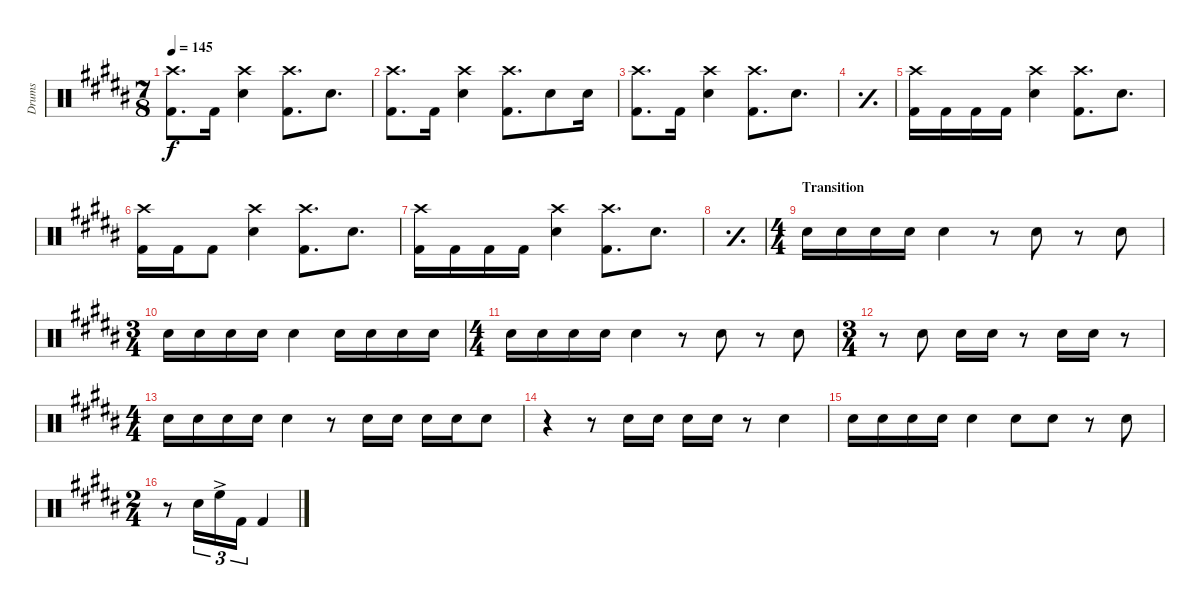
\defaultSystemsLayout 4
\bracketExtendMode groupsimilarinstruments
\otherSystemsTrackNameOrientation horizontal
\track ("Drumkit" "Drums") {multiBarRest instrument percussion}
\staff {score}
\articulation defaults
\ts (7 8)
\tempo 145
\clef neutral
\ks b
("Kick (hit) 2"{acc forcenatural} "Crash high (hit)"{acc forcenatural}).8{d dy f} "Kick (hit) 2"{acc forcenatural}.16 ("Snare (hit) 2"{acc forcenatural} "Crash high (hit)"{acc forcenatural}).4 ("Kick (hit) 2"{acc forcenatural} "Crash high (hit)"{acc forcenatural}).8{d} "Snare (hit) 2"{acc forcenatural}.8{d} |
("Kick (hit) 2"{acc forcenatural} "Crash high (hit)"{acc forcenatural}).8{d} "Kick (hit) 2"{acc forcenatural}.16 ("Snare (hit) 2"{acc forcenatural} "Crash high (hit)"{acc forcenatural}).4 ("Kick (hit) 2"{acc forcenatural} "Crash high (hit)"{acc forcenatural}).8{d} "Snare (hit) 2"{acc forcenatural}.8 "Snare (hit) 2"{acc forcenatural}.16 |
("Kick (hit) 2"{acc forcenatural} "Crash high (hit)"{acc forcenatural}).8{d} "Kick (hit) 2"{acc forcenatural}.16 ("Snare (hit) 2"{acc forcenatural} "Crash high (hit)"{acc forcenatural}).4 ("Kick (hit) 2"{acc forcenatural} "Crash high (hit)"{acc forcenatural}).8{d} "Snare (hit) 2"{acc forcenatural}.8{d} |
\simile simple
|
\simile none
("Kick (hit) 2"{acc forcenatural} "Crash high (hit)"{acc forcenatural}).16 "Kick (hit) 2"{acc forcenatural}.16 "Kick (hit) 2"{acc forcenatural}.16 "Kick (hit) 2"{acc forcenatural}.16 ("Snare (hit) 2"{acc forcenatural} "Crash high (hit)"{acc forcenatural}).4 ("Kick (hit) 2"{acc forcenatural} "Crash high (hit)"{acc forcenatural}).8{d} "Snare (hit) 2"{acc forcenatural}.8{d} |
("Kick (hit) 2"{acc forcenatural} "Crash high (hit)"{acc forcenatural}).16 "Kick (hit) 2"{acc forcenatural}.16 "Kick (hit) 2"{acc forcenatural}.8 ("Snare (hit) 2"{acc forcenatural} "Crash high (hit)"{acc forcenatural}).4 ("Kick (hit) 2"{acc forcenatural} "Crash high (hit)"{acc forcenatural}).8{d} "Snare (hit) 2"{acc forcenatural}.8{d} |
("Kick (hit) 2"{acc forcenatural} "Crash high (hit)"{acc forcenatural}).16 "Kick (hit) 2"{acc forcenatural}.16 "Kick (hit) 2"{acc forcenatural}.16 "Kick (hit) 2"{acc forcenatural}.16 ("Snare (hit) 2"{acc forcenatural} "Crash high (hit)"{acc forcenatural}).4 ("Kick (hit) 2"{acc forcenatural} "Crash high (hit)"{acc forcenatural}).8{d} "Snare (hit) 2"{acc forcenatural}.8{d} |
\simile simple
|
\ts (4 4)
\beaming (8 2 2 2 2)
\section ("" "Transition")
\simile none "Snare (hit) 2"{acc forcenatural}.16 "Snare (hit) 2"{acc forcenatural}.16 "Snare (hit) 2"{acc forcenatural}.16 "Snare (hit) 2"{acc forcenatural}.16 "Snare (hit) 2"{acc forcenatural}.4
r.8 "Snare (hit) 2"{acc forcenatural}.8 r.8 "Snare (hit) 2"{acc forcenatural}.8 |
\ts (3 4)
\beaming (8 2 2 2 2)
"Snare (hit) 2"{acc forcenatural}.16 "Snare (hit) 2"{acc forcenatural}.16 "Snare (hit) 2"{acc forcenatural}.16 "Snare (hit) 2"{acc forcenatural}.16 "Snare (hit) 2"{acc forcenatural}.4 "Snare (hit) 2"{acc forcenatural}.16 "Snare (hit) 2"{acc forcenatural}.16 "Snare (hit) 2"{acc forcenatural}.16 "Snare (hit) 2"{acc forcenatural}.16 |
\ts (4 4)
\beaming (8 2 2 2 2)
"Snare (hit) 2"{acc forcenatural}.16 "Snare (hit) 2"{acc forcenatural}.16 "Snare (hit) 2"{acc forcenatural}.16 "Snare (hit) 2"{acc forcenatural}.16 "Snare (hit) 2"{acc forcenatural}.4 r.8 "Snare (hit) 2"{acc forcenatural}.8 r.8 "Snare (hit) 2"{acc forcenatural}.8 |
\ts (3 4)
\beaming (8 2 2 2 2)
r.8 "Snare (hit) 2"{acc forcenatural}.8 "Snare (hit) 2"{acc forcenatural}.16 "Snare (hit) 2"{acc forcenatural}.16 r.8 "Snare (hit) 2"{acc forcenatural}.16 "Snare (hit) 2"{acc forcenatural}.16 r.8 |
\ts (4 4)
\beaming (8 2 2 2 2)
"Snare (hit) 2"{acc forcenatural}.16 "Snare (hit) 2"{acc forcenatural}.16 "Snare (hit) 2"{acc forcenatural}.16 "Snare (hit) 2"{acc forcenatural}.16 "Snare (hit) 2"{acc forcenatural}.4 r.8 "Snare (hit) 2"{acc forcenatural}.16 "Snare (hit) 2"{acc forcenatural}.16 "Snare (hit) 2"{acc forcenatural}.16 "Snare (hit) 2"{acc forcenatural}.16 "Snare (hit) 2"{acc forcenatural}.8 |
r.4 r.8 "Snare (hit) 2"{acc forcenatural}.16 "Snare (hit) 2"{acc forcenatural}.16 "Snare (hit) 2"{acc forcenatural}.16 "Snare (hit) 2"{acc forcenatural}.16 r.8 "Snare (hit) 2"{acc forcenatural}.4 |
"Snare (hit) 2"{acc forcenatural}.16 "Snare (hit) 2"{acc forcenatural}.16 "Snare (hit) 2"{acc forcenatural}.16 "Snare (hit) 2"{acc forcenatural}.16 "Snare (hit) 2"{acc forcenatural}.4 "Snare (hit) 2"{acc forcenatural}.8 "Snare (hit) 2"{acc forcenatural}.8 r.8 "Snare (hit) 2"{acc forcenatural}.8 |
\ts (2 4)
\beaming (8 2 2 2 2)
r.8 "Snare (hit) 2"{acc forcenatural}.16{tu (3 2)} "High Floor Tom (hit)"{ac acc forcenatural}.16{tu (3 2)} "Kick (hit) 2"{acc forcenatural}.16{tu (3 2)} "Kick (hit) 2"{acc forcenatural}.4
